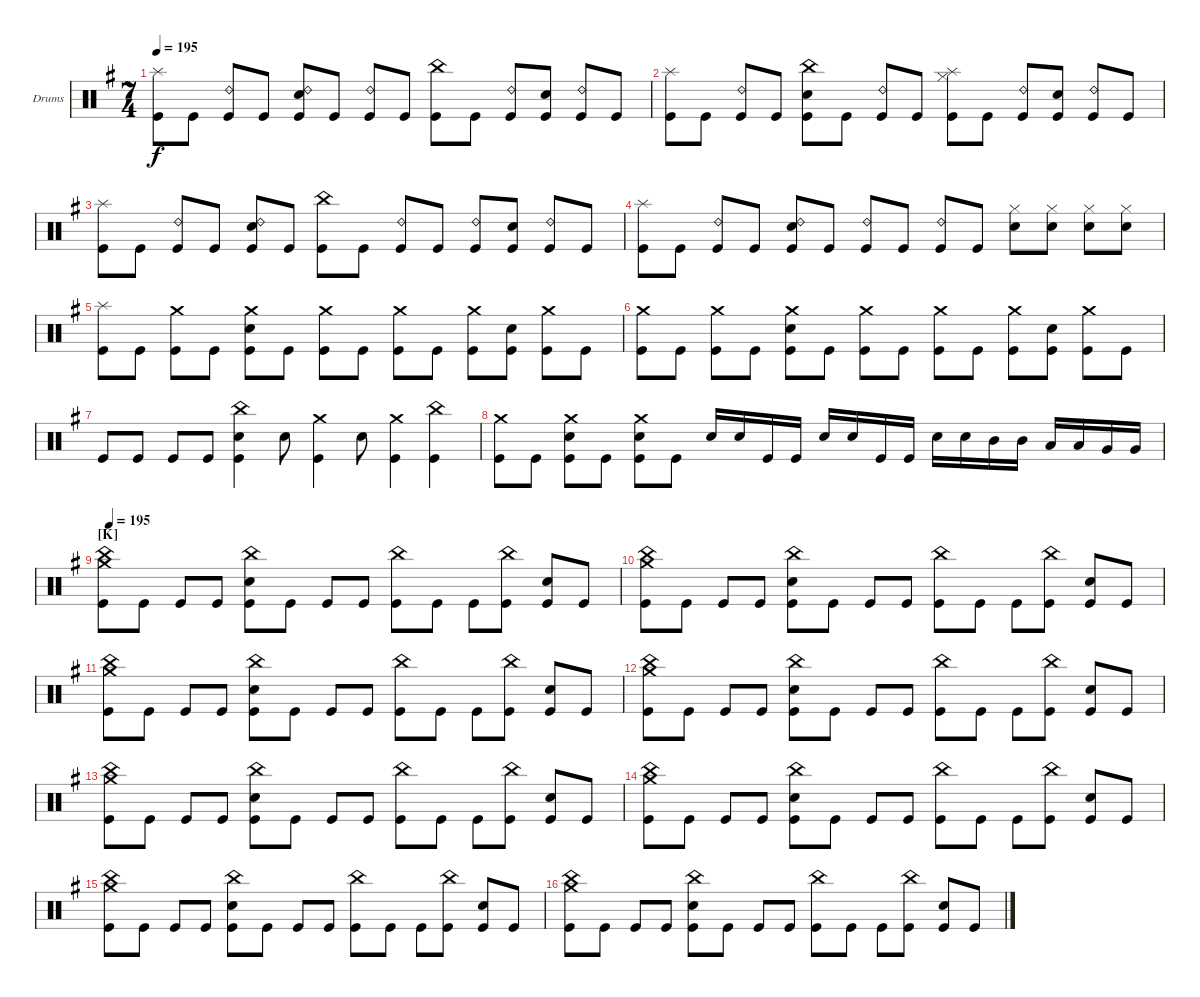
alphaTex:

\defaultSystemsLayout 4
\bracketExtendMode groupsimilarinstruments
\firstSystemTrackNameOrientation horizontal
\otherSystemsTrackNameOrientation horizontal
\track ("Drumkit" "Drums") {instrument percussion}
\staff {score}
\articulation defaults
\ts (7 4)
\tempo 195
\clef neutral
\ks eminor
("Kick (hit)" "Splash (hit)").8{dy f} "Kick (hit)".8 ("Kick (hit)" "Ride (bell) 2").8 "Kick (hit)".8 ("Kick (hit)" "Snare (hit) 2" "Ride (bell) 2").8 "Kick (hit)".8 ("Kick (hit)" "Ride (bell) 2").8 "Kick (hit)".8 ("Kick (hit)" "China (hit)").8 "Kick (hit)".8 ("Kick (hit)" "Ride (bell) 2").8 ("Kick (hit)" "Snare (hit) 2").8 ("Kick (hit)" "Ride (bell) 2").8 "Kick (hit)".8 |
("Kick (hit)" "Splash (hit)").8 "Kick (hit)".8 ("Kick (hit)" "Ride (bell) 2").8 "Kick (hit)".8 ("Kick (hit)" "Snare (hit) 2" "China (hit)").8 "Kick (hit)".8 ("Kick (hit)" "Ride (bell) 2").8 "Kick (hit)".8 ("Kick (hit)" "Splash (hit)" "Hi-Hat (closed)").8 "Kick (hit)".8 ("Kick (hit)" "Ride (bell) 2").8 ("Kick (hit)" "Snare (hit) 2").8 ("Kick (hit)" "Ride (bell) 2").8 "Kick (hit)".8 |
("Kick (hit)" "Splash (hit)").8 "Kick (hit)".8 ("Kick (hit)" "Ride (bell) 2").8 "Kick (hit)".8 ("Kick (hit)" "Snare (hit) 2" "Ride (bell) 2").8 "Kick (hit)".8 ("Kick (hit)" "China (hit)").8 "Kick (hit)".8 ("Kick (hit)" "Ride (bell) 2").8 "Kick (hit)".8 ("Kick (hit)" "Ride (bell) 2").8 ("Kick (hit)" "Snare (hit) 2").8 ("Kick (hit)" "Ride (bell) 2").8 "Kick (hit)".8 |
("Kick (hit)" "Splash (hit)").8 "Kick (hit)".8 ("Kick (hit)" "Ride (bell) 2").8 "Kick (hit)".8 ("Kick (hit)" "Snare (hit) 2" "Ride (bell) 2").8 "Kick (hit)".8 ("Kick (hit)" "Ride (bell) 2").8 "Kick (hit)".8 ("Kick (hit)" "Ride (bell) 2").8 "Kick (hit)".8 ("Hi-Hat (closed)" "Snare (hit) 2").8 ("Hi-Hat (closed)" "Snare (hit) 2").8 ("Hi-Hat (closed)" "Snare (hit) 2").8 ("Hi-Hat (closed)" "Snare (hit) 2").8 |
("Kick (hit)" "Splash (hit)").8 "Kick (hit)".8 ("Kick (hit)" "Crash medium (hit)").8 "Kick (hit)".8 ("Kick (hit)" "Snare (hit) 2" "Crash medium (hit)").8 "Kick (hit)".8 ("Kick (hit)" "Crash medium (hit)").8 "Kick (hit)".8 ("Kick (hit)" "Crash medium (hit)").8 "Kick (hit)".8 ("Kick (hit)" "Crash medium (hit)").8 ("Kick (hit)" "Snare (hit) 2").8 ("Kick (hit)" "Crash medium (hit)").8 "Kick (hit)".8 |
("Kick (hit)" "Crash medium (hit)").8 "Kick (hit)".8 ("Kick (hit)" "Crash medium (hit)").8 "Kick (hit)".8 ("Kick (hit)" "Snare (hit) 2" "Crash medium (hit)").8 "Kick (hit)".8 ("Kick (hit)" "Crash medium (hit)").8 "Kick (hit)".8 ("Kick (hit)" "Crash medium (hit)").8 "Kick (hit)".8 ("Kick (hit)" "Crash medium (hit)").8 ("Kick (hit)" "Snare (hit) 2").8 ("Kick (hit)" "Crash medium (hit)").8 "Kick (hit)".8 |
"Kick (hit)".8 "Kick (hit)".8 "Kick (hit)".8 "Kick (hit)".8 ("Kick (hit)" "Snare (hit) 2" "China (hit)").4 "Snare (hit) 2".8 ("Kick (hit)" "Crash medium (hit)").4 "Snare (hit) 2".8 ("Kick (hit)" "Crash medium (hit)").4 ("Kick (hit)" "China (hit)").4 |
("Crash medium (hit)" "Kick (hit)").8 "Kick (hit)".8 ("Snare (hit) 2" "Kick (hit)" "Crash medium (hit)").8 "Kick (hit)".8 ("Snare (hit) 2" "Kick (hit)" "Crash medium (hit)").8 "Kick (hit)".8 "Snare (hit) 2".16 "Snare (hit) 2".16 "Kick (hit)".16 "Kick (hit)".16 "Snare (hit) 2".16 "Snare (hit) 2".16 "Kick (hit)".16 "Kick (hit)".16 "Snare (hit) 2".16 "Snare (hit) 2".16 "Mid Tom (hit)".16 "Mid Tom (hit)".16 "Low Tom (hit)".16 "Low Tom (hit)".16 "Very Low Tom (hit)".16 "Very Low Tom (hit)".16 |
\section ("K" "")
\tempo (195 0.00625)
("Kick (hit)" "China (hit)" "Crash medium (hit)").8 "Kick (hit)".8 "Kick (hit)".8 "Kick (hit)".8 ("Kick (hit)" "China (hit)" "Snare (hit) 2").8 "Kick (hit)".8 "Kick (hit)".8 "Kick (hit)".8 ("China (hit)" "Kick (hit)").8 "Kick (hit)".8 "Kick (hit)".8 ("China (hit)" "Kick (hit)").8 ("Kick (hit)" "Snare (hit) 2").8 "Kick (hit)".8 |
("Kick (hit)" "China (hit)" "Crash medium (hit)").8 "Kick (hit)".8 "Kick (hit)".8 "Kick (hit)".8 ("Kick (hit)" "China (hit)" "Snare (hit) 2").8 "Kick (hit)".8 "Kick (hit)".8 "Kick (hit)".8 ("China (hit)" "Kick (hit)").8 "Kick (hit)".8 "Kick (hit)".8 ("China (hit)" "Kick (hit)").8 ("Kick (hit)" "Snare (hit) 2").8 "Kick (hit)".8 |
("Kick (hit)" "China (hit)" "Crash medium (hit)").8 "Kick (hit)".8 "Kick (hit)".8 "Kick (hit)".8 ("Kick (hit)" "China (hit)" "Snare (hit) 2").8 "Kick (hit)".8 "Kick (hit)".8 "Kick (hit)".8 ("China (hit)" "Kick (hit)").8 "Kick (hit)".8 "Kick (hit)".8 ("China (hit)" "Kick (hit)").8 ("Kick (hit)" "Snare (hit) 2").8 "Kick (hit)".8 |
("Kick (hit)" "China (hit)" "Crash medium (hit)").8 "Kick (hit)".8 "Kick (hit)".8 "Kick (hit)".8 ("Kick (hit)" "China (hit)" "Snare (hit) 2").8 "Kick (hit)".8 "Kick (hit)".8 "Kick (hit)".8 ("China (hit)" "Kick (hit)").8 "Kick (hit)".8 "Kick (hit)".8 ("China (hit)" "Kick (hit)").8 ("Kick (hit)" "Snare (hit) 2").8 "Kick (hit)".8 |
("Kick (hit)" "China (hit)" "Crash medium (hit)").8 "Kick (hit)".8 "Kick (hit)".8 "Kick (hit)".8 ("Kick (hit)" "China (hit)" "Snare (hit) 2").8 "Kick (hit)".8 "Kick (hit)".8 "Kick (hit)".8 ("China (hit)" "Kick (hit)").8 "Kick (hit)".8 "Kick (hit)".8 ("China (hit)" "Kick (hit)").8 ("Kick (hit)" "Snare (hit) 2").8 "Kick (hit)".8 |
("Kick (hit)" "China (hit)" "Crash medium (hit)").8 "Kick (hit)".8 "Kick (hit)".8 "Kick (hit)".8 ("Kick (hit)" "China (hit)" "Snare (hit) 2").8 "Kick (hit)".8 "Kick (hit)".8 "Kick (hit)".8 ("China (hit)" "Kick (hit)").8 "Kick (hit)".8 "Kick (hit)".8 ("China (hit)" "Kick (hit)").8 ("Kick (hit)" "Snare (hit) 2").8 "Kick (hit)".8 |
("Kick (hit)" "China (hit)" "Crash medium (hit)").8 "Kick (hit)".8 "Kick (hit)".8 "Kick (hit)".8 ("Kick (hit)" "China (hit)" "Snare (hit) 2").8 "Kick (hit)".8 "Kick (hit)".8 "Kick (hit)".8 ("China (hit)" "Kick (hit)").8 "Kick (hit)".8 "Kick (hit)".8 ("China (hit)" "Kick (hit)").8 ("Kick (hit)" "Snare (hit) 2").8 "Kick (hit)".8 |
("Kick (hit)" "China (hit)" "Crash medium (hit)").8 "Kick (hit)".8 "Kick (hit)".8 "Kick (hit)".8 ("Kick (hit)" "China (hit)" "Snare (hit) 2").8 "Kick (hit)".8 "Kick (hit)".8 "Kick (hit)".8 ("China (hit)" "Kick (hit)").8 "Kick (hit)".8 "Kick (hit)".8 ("China (hit)" "Kick (hit)").8 ("Kick (hit)" "Snare (hit) 2").8 "Kick (hit)".8
